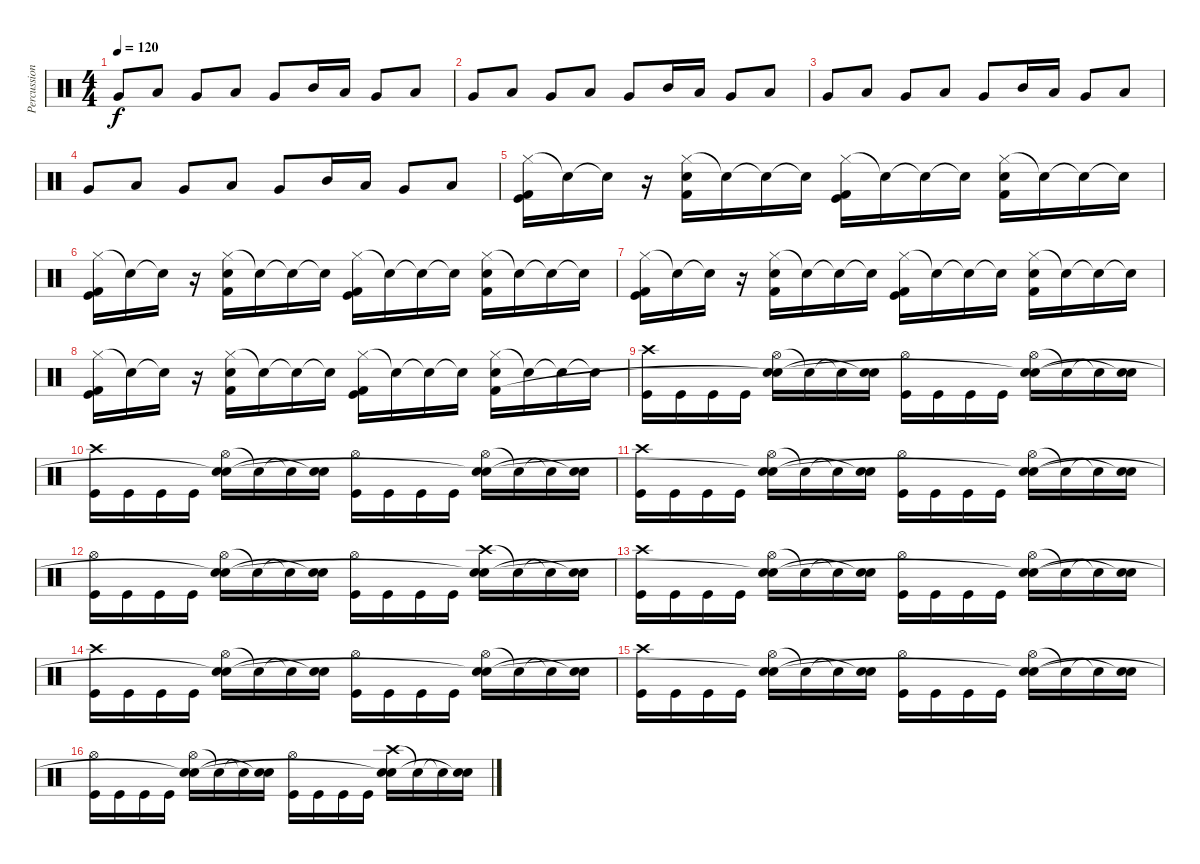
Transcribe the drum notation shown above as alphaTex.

\track ("Percussion" "Percussion") {instrument percussion}
\staff {score}
\articulation defaults
\ts (4 4)
\tempo 120
\clef neutral
\ks c "Very Low Tom (hit)".8{dy f} "Low Floor Tom (hit)".8 "Very Low Tom (hit)".8 "Low Floor Tom (hit)".8 "Very Low Tom (hit)".8 "Mid Tom (hit)".16 "Low Floor Tom (hit)".16 "Very Low Tom (hit)".8 "Low Tom (hit)".8
|
"Very Low Tom (hit)".8 "Low Floor Tom (hit)".8 "Very Low Tom (hit)".8 "Low Floor Tom (hit)".8 "Very Low Tom (hit)".8 "Mid Tom (hit)".16 "Low Floor Tom (hit)".16 "Very Low Tom (hit)".8 "Low Tom (hit)".8 |
"Very Low Tom (hit)".8 "Low Floor Tom (hit)".8 "Very Low Tom (hit)".8 "Low Floor Tom (hit)".8 "Very Low Tom (hit)".8 "Mid Tom (hit)".16 "Low Floor Tom (hit)".16 "Very Low Tom (hit)".8 "Low Tom (hit)".8 |
"Very Low Tom (hit)".8 "Low Floor Tom (hit)".8 "Very Low Tom (hit)".8 "Low Floor Tom (hit)".8 "Very Low Tom (hit)".8 "Mid Tom (hit)".16 "Low Floor Tom (hit)".16 "Very Low Tom (hit)".8 "Low Tom (hit)".8 |
("Hi-Hat (closed)" "Kick (hit) 2" "Kick (hit)").16 "Snare (hit)"{t}.16 "Snare (hit)"{t}.16 r.16 ("Hi-Hat (closed)" "Electric Snare (hit)" "Kick (hit) 2").16 "Snare (hit)"{t}.16 "Snare (hit)"{t}.16 "Snare (hit)"{t}.16 ("Hi-Hat (closed)" "Kick (hit) 2" "Kick (hit)").16 "Snare (hit)"{t}.16 "Snare (hit)"{t}.16 "Snare (hit)"{t}.16 ("Hi-Hat (closed)" "Electric Snare (hit)" "Kick (hit) 2").16 "Snare (hit)"{t}.16 "Snare (hit)"{t}.16 "Snare (hit)"{t}.16 |
("Hi-Hat (closed)" "Kick (hit) 2" "Kick (hit)").16 "Snare (hit)"{t}.16 "Snare (hit)"{t}.16 r.16 ("Hi-Hat (closed)" "Electric Snare (hit)" "Kick (hit) 2").16 "Snare (hit)"{t}.16 "Snare (hit)"{t}.16 "Snare (hit)"{t}.16 ("Hi-Hat (closed)" "Kick (hit) 2" "Kick (hit)").16 "Snare (hit)"{t}.16 "Snare (hit)"{t}.16 "Snare (hit)"{t}.16 ("Hi-Hat (closed)" "Electric Snare (hit)" "Kick (hit) 2").16 "Snare (hit)"{t}.16 "Snare (hit)"{t}.16 "Snare (hit)"{t}.16 |
("Hi-Hat (closed)" "Kick (hit) 2" "Kick (hit)").16 "Snare (hit)"{t}.16 "Snare (hit)"{t}.16 r.16 ("Hi-Hat (closed)" "Electric Snare (hit)" "Kick (hit) 2").16 "Snare (hit)"{t}.16 "Snare (hit)"{t}.16 "Snare (hit)"{t}.16 ("Hi-Hat (closed)" "Kick (hit) 2" "Kick (hit)").16 "Snare (hit)"{t}.16 "Snare (hit)"{t}.16 "Snare (hit)"{t}.16 ("Hi-Hat (closed)" "Electric Snare (hit)" "Kick (hit) 2").16 "Snare (hit)"{t}.16 "Snare (hit)"{t}.16 "Snare (hit)"{t}.16 |
("Hi-Hat (closed)" "Kick (hit) 2" "Kick (hit)").16 "Snare (hit)"{t}.16 "Snare (hit)"{t}.16 r.16 ("Hi-Hat (closed)" "Electric Snare (hit)" "Kick (hit) 2").16 "Snare (hit)"{t}.16 "Snare (hit)"{t}.16 "Snare (hit)"{t}.16 ("Hi-Hat (closed)" "Kick (hit) 2" "Kick (hit)").16 "Snare (hit)"{t}.16 "Snare (hit)"{t}.16 "Snare (hit)"{t}.16 ("Hi-Hat (closed)" "Electric Snare (hit)" "Kick (hit) 2").16 "Snare (hit)"{t}.16 "Snare (hit)"{t}.16 "Snare (hit)"{t}.16 |
("Crash high (hit)" "Kick (hit)").16 "Kick (hit)".16 "Kick (hit)".16 "Kick (hit)".16 ("Hi-Hat (open)" "Electric Snare (hit)" "Snare (hit)"{t}).16 "Snare (hit)"{t}.16 "Snare (hit)"{t}.16 ("Electric Snare (hit)" "Snare (hit)"{t}).16 ("Hi-Hat (open)" "Kick (hit)").16 "Kick (hit)".16 "Kick (hit)".16 "Kick (hit)".16 ("Hi-Hat (open)" "Electric Snare (hit)" "Snare (hit)"{t}).16 "Snare (hit)"{t}.16 "Snare (hit)"{t}.16 ("Electric Snare (hit)" "Snare (hit)"{t}).16 |
("Crash high (hit)" "Kick (hit)").16 "Kick (hit)".16 "Kick (hit)".16 "Kick (hit)".16 ("Hi-Hat (open)" "Electric Snare (hit)" "Snare (hit)"{t}).16 "Snare (hit)"{t}.16 "Snare (hit)"{t}.16 ("Electric Snare (hit)" "Snare (hit)"{t}).16 ("Hi-Hat (open)" "Kick (hit)").16 "Kick (hit)".16 "Kick (hit)".16 "Kick (hit)".16 ("Hi-Hat (open)" "Electric Snare (hit)" "Snare (hit)"{t}).16 "Snare (hit)"{t}.16 "Snare (hit)"{t}.16 ("Electric Snare (hit)" "Snare (hit)"{t}).16 |
("Crash high (hit)" "Kick (hit)").16 "Kick (hit)".16 "Kick (hit)".16 "Kick (hit)".16 ("Hi-Hat (open)" "Electric Snare (hit)" "Snare (hit)"{t}).16 "Snare (hit)"{t}.16 "Snare (hit)"{t}.16 ("Electric Snare (hit)" "Snare (hit)"{t}).16 ("Hi-Hat (open)" "Kick (hit)").16 "Kick (hit)".16 "Kick (hit)".16 "Kick (hit)".16 ("Hi-Hat (open)" "Electric Snare (hit)" "Snare (hit)"{t}).16 "Snare (hit)"{t}.16 "Snare (hit)"{t}.16 ("Electric Snare (hit)" "Snare (hit)"{t}).16 |
("Hi-Hat (open)" "Kick (hit)").16 "Kick (hit)".16 "Kick (hit)".16 "Kick (hit)".16 ("Hi-Hat (open)" "Electric Snare (hit)" "Snare (hit)"{t}).16 "Snare (hit)"{t}.16 "Snare (hit)"{t}.16 ("Electric Snare (hit)" "Snare (hit)"{t}).16 ("Hi-Hat (open)" "Kick (hit)").16 "Kick (hit)".16 "Kick (hit)".16 "Kick (hit)".16 ("Crash high (hit)" "Electric Snare (hit)" "Snare (hit)"{t}).16 "Snare (hit)"{t}.16 "Snare (hit)"{t}.16 ("Electric Snare (hit)" "Snare (hit)"{t}).16 |
("Crash high (hit)" "Kick (hit)").16 "Kick (hit)".16 "Kick (hit)".16 "Kick (hit)".16 ("Hi-Hat (open)" "Electric Snare (hit)" "Snare (hit)"{t}).16 "Snare (hit)"{t}.16 "Snare (hit)"{t}.16 ("Electric Snare (hit)" "Snare (hit)"{t}).16 ("Hi-Hat (open)" "Kick (hit)").16 "Kick (hit)".16 "Kick (hit)".16 "Kick (hit)".16 ("Hi-Hat (open)" "Electric Snare (hit)" "Snare (hit)"{t}).16 "Snare (hit)"{t}.16 "Snare (hit)"{t}.16 ("Electric Snare (hit)" "Snare (hit)"{t}).16 |
("Crash high (hit)" "Kick (hit)").16 "Kick (hit)".16 "Kick (hit)".16 "Kick (hit)".16 ("Hi-Hat (open)" "Electric Snare (hit)" "Snare (hit)"{t}).16 "Snare (hit)"{t}.16 "Snare (hit)"{t}.16 ("Electric Snare (hit)" "Snare (hit)"{t}).16 ("Hi-Hat (open)" "Kick (hit)").16 "Kick (hit)".16 "Kick (hit)".16 "Kick (hit)".16 ("Hi-Hat (open)" "Electric Snare (hit)" "Snare (hit)"{t}).16 "Snare (hit)"{t}.16 "Snare (hit)"{t}.16 ("Electric Snare (hit)" "Snare (hit)"{t}).16 |
("Crash high (hit)" "Kick (hit)").16 "Kick (hit)".16 "Kick (hit)".16 "Kick (hit)".16 ("Hi-Hat (open)" "Electric Snare (hit)" "Snare (hit)"{t}).16 "Snare (hit)"{t}.16 "Snare (hit)"{t}.16 ("Electric Snare (hit)" "Snare (hit)"{t}).16 ("Hi-Hat (open)" "Kick (hit)").16 "Kick (hit)".16 "Kick (hit)".16 "Kick (hit)".16 ("Hi-Hat (open)" "Electric Snare (hit)" "Snare (hit)"{t}).16 "Snare (hit)"{t}.16 "Snare (hit)"{t}.16 ("Electric Snare (hit)" "Snare (hit)"{t}).16 |
("Hi-Hat (open)" "Kick (hit)").16 "Kick (hit)".16 "Kick (hit)".16 "Kick (hit)".16 ("Hi-Hat (open)" "Electric Snare (hit)" "Snare (hit)"{t}).16 "Snare (hit)"{t}.16 "Snare (hit)"{t}.16 ("Electric Snare (hit)" "Snare (hit)"{t}).16 ("Hi-Hat (open)" "Kick (hit)").16 "Kick (hit)".16 "Kick (hit)".16 "Kick (hit)".16 ("Crash high (hit)" "Electric Snare (hit)" "Snare (hit)"{t}).16 "Snare (hit)"{t}.16 "Snare (hit)"{t}.16 ("Electric Snare (hit)" "Snare (hit)"{t}).16
